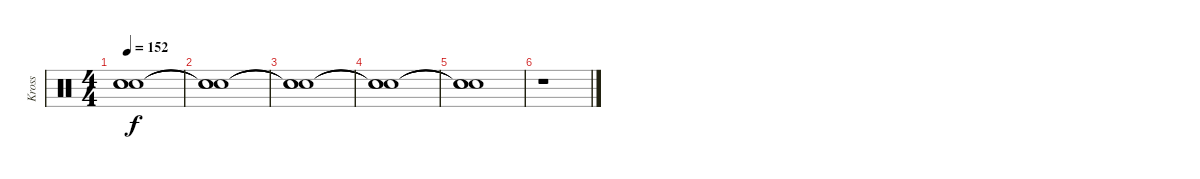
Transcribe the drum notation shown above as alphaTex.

\track ("Kross" "Kross") {instrument percussion}
\staff {score}
\articulation defaults
\ts (4 4)
\tempo 152
\clef neutral
\ks c
("Snare (hit)"{t} "Snare (hit)"{t} "Snare (hit)"{t}).1{dy f} |
("Snare (hit)"{t} "Snare (hit)"{t} "Snare (hit)"{t}).1 |
("Snare (hit)"{t} "Snare (hit)"{t} "Snare (hit)"{t}).1 |
("Snare (hit)"{t} "Snare (hit)"{t} "Snare (hit)"{t}).1 |
("Snare (hit)"{t} "Snare (hit)"{t} "Snare (hit)"{t}).1 |
r.1
